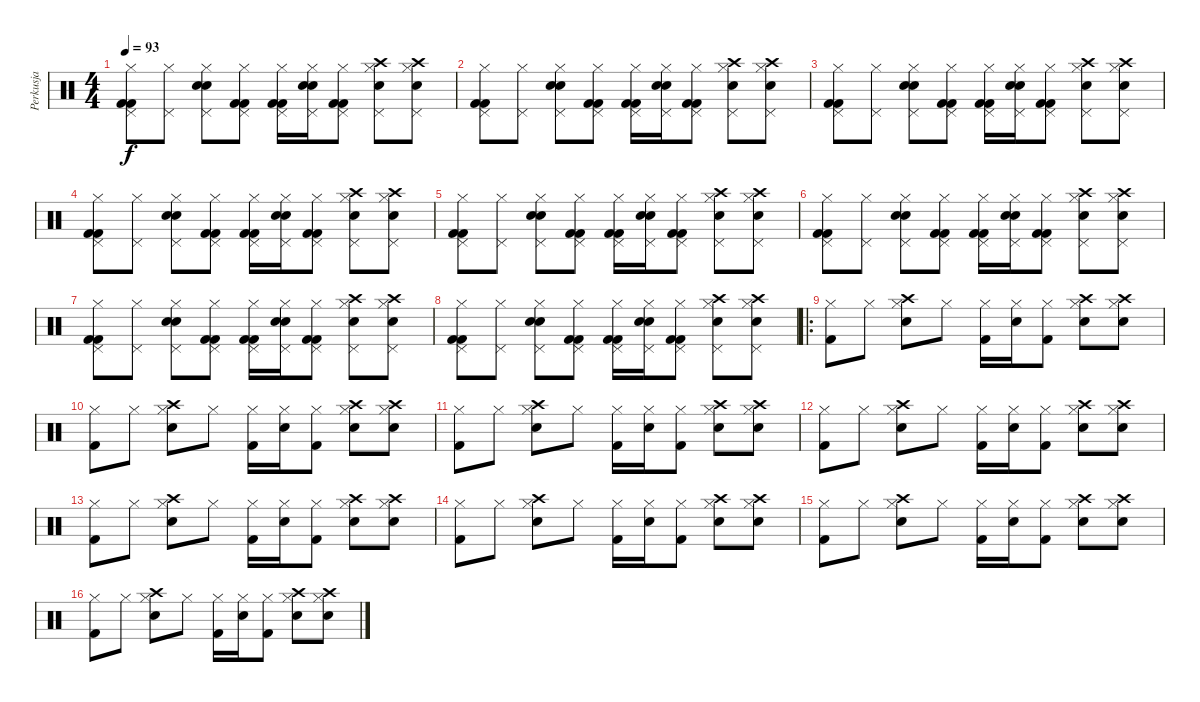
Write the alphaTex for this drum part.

\track ("Perkusja" "Perkusja") {instrument percussion}
\staff {score}
\articulation defaults
\ts (4 4)
\tempo 93
\clef neutral
\ks c
("Kick (hit) 2" "Kick (hit) 2" "Hi-Hat (closed)" "Pedal Hi-Hat (hit)").8{dy f} ("Hi-Hat (closed)" "Pedal Hi-Hat (hit)").8 ("Electric Snare (hit)" "Electric Snare (hit)" "Hi-Hat (closed)" "Pedal Hi-Hat (hit)").8 ("Kick (hit) 2" "Kick (hit) 2" "Hi-Hat (closed)" "Pedal Hi-Hat (hit)").8 ("Kick (hit) 2" "Kick (hit) 2" "Hi-Hat (closed)" "Pedal Hi-Hat (hit)").16 ("Electric Snare (hit)" "Electric Snare (hit)" "Hi-Hat (closed)" "Pedal Hi-Hat (hit)").16 ("Kick (hit) 2" "Kick (hit) 2" "Hi-Hat (closed)" "Pedal Hi-Hat (hit)").8 ("Crash high (hit)" "Electric Snare (hit)" "Hi-Hat (closed)" "Pedal Hi-Hat (hit)").8 ("Crash high (hit)" "Electric Snare (hit)" "Hi-Hat (closed)" "Pedal Hi-Hat (hit)").8 |
("Kick (hit) 2" "Kick (hit) 2" "Hi-Hat (closed)" "Pedal Hi-Hat (hit)").8 ("Hi-Hat (closed)" "Pedal Hi-Hat (hit)").8 ("Electric Snare (hit)" "Electric Snare (hit)" "Hi-Hat (closed)" "Pedal Hi-Hat (hit)").8 ("Kick (hit) 2" "Kick (hit) 2" "Hi-Hat (closed)" "Pedal Hi-Hat (hit)").8 ("Kick (hit) 2" "Kick (hit) 2" "Hi-Hat (closed)" "Pedal Hi-Hat (hit)").16 ("Electric Snare (hit)" "Electric Snare (hit)" "Hi-Hat (closed)" "Pedal Hi-Hat (hit)").16 ("Kick (hit) 2" "Kick (hit) 2" "Hi-Hat (closed)" "Pedal Hi-Hat (hit)").8 ("Crash high (hit)" "Electric Snare (hit)" "Hi-Hat (closed)" "Pedal Hi-Hat (hit)").8 ("Crash high (hit)" "Electric Snare (hit)" "Hi-Hat (closed)" "Pedal Hi-Hat (hit)").8 |
("Kick (hit) 2" "Kick (hit) 2" "Hi-Hat (closed)" "Pedal Hi-Hat (hit)").8 ("Hi-Hat (closed)" "Pedal Hi-Hat (hit)").8 ("Electric Snare (hit)" "Electric Snare (hit)" "Hi-Hat (closed)" "Pedal Hi-Hat (hit)").8 ("Kick (hit) 2" "Kick (hit) 2" "Hi-Hat (closed)" "Pedal Hi-Hat (hit)").8 ("Kick (hit) 2" "Kick (hit) 2" "Hi-Hat (closed)" "Pedal Hi-Hat (hit)").16 ("Electric Snare (hit)" "Electric Snare (hit)" "Hi-Hat (closed)" "Pedal Hi-Hat (hit)").16 ("Kick (hit) 2" "Kick (hit) 2" "Hi-Hat (closed)" "Pedal Hi-Hat (hit)").8 ("Crash high (hit)" "Electric Snare (hit)" "Hi-Hat (closed)" "Pedal Hi-Hat (hit)").8 ("Crash high (hit)" "Electric Snare (hit)" "Hi-Hat (closed)" "Pedal Hi-Hat (hit)").8 |
("Kick (hit) 2" "Kick (hit) 2" "Hi-Hat (closed)" "Pedal Hi-Hat (hit)").8 ("Hi-Hat (closed)" "Pedal Hi-Hat (hit)").8 ("Electric Snare (hit)" "Electric Snare (hit)" "Hi-Hat (closed)" "Pedal Hi-Hat (hit)").8 ("Kick (hit) 2" "Kick (hit) 2" "Hi-Hat (closed)" "Pedal Hi-Hat (hit)").8 ("Kick (hit) 2" "Kick (hit) 2" "Hi-Hat (closed)" "Pedal Hi-Hat (hit)").16 ("Electric Snare (hit)" "Electric Snare (hit)" "Hi-Hat (closed)" "Pedal Hi-Hat (hit)").16 ("Kick (hit) 2" "Kick (hit) 2" "Hi-Hat (closed)" "Pedal Hi-Hat (hit)").8 ("Crash high (hit)" "Electric Snare (hit)" "Hi-Hat (closed)" "Pedal Hi-Hat (hit)").8 ("Crash high (hit)" "Electric Snare (hit)" "Hi-Hat (closed)" "Pedal Hi-Hat (hit)").8 |
("Kick (hit) 2" "Kick (hit) 2" "Hi-Hat (closed)" "Pedal Hi-Hat (hit)").8 ("Hi-Hat (closed)" "Pedal Hi-Hat (hit)").8 ("Electric Snare (hit)" "Electric Snare (hit)" "Hi-Hat (closed)" "Pedal Hi-Hat (hit)").8 ("Kick (hit) 2" "Kick (hit) 2" "Hi-Hat (closed)" "Pedal Hi-Hat (hit)").8 ("Kick (hit) 2" "Kick (hit) 2" "Hi-Hat (closed)" "Pedal Hi-Hat (hit)").16 ("Electric Snare (hit)" "Electric Snare (hit)" "Hi-Hat (closed)" "Pedal Hi-Hat (hit)").16 ("Kick (hit) 2" "Kick (hit) 2" "Hi-Hat (closed)" "Pedal Hi-Hat (hit)").8 ("Crash high (hit)" "Electric Snare (hit)" "Hi-Hat (closed)" "Pedal Hi-Hat (hit)").8 ("Crash high (hit)" "Electric Snare (hit)" "Hi-Hat (closed)" "Pedal Hi-Hat (hit)").8 |
("Kick (hit) 2" "Kick (hit) 2" "Hi-Hat (closed)" "Pedal Hi-Hat (hit)").8 ("Hi-Hat (closed)" "Pedal Hi-Hat (hit)").8 ("Electric Snare (hit)" "Electric Snare (hit)" "Hi-Hat (closed)" "Pedal Hi-Hat (hit)").8 ("Kick (hit) 2" "Kick (hit) 2" "Hi-Hat (closed)" "Pedal Hi-Hat (hit)").8 ("Kick (hit) 2" "Kick (hit) 2" "Hi-Hat (closed)" "Pedal Hi-Hat (hit)").16 ("Electric Snare (hit)" "Electric Snare (hit)" "Hi-Hat (closed)" "Pedal Hi-Hat (hit)").16 ("Kick (hit) 2" "Kick (hit) 2" "Hi-Hat (closed)" "Pedal Hi-Hat (hit)").8 ("Crash high (hit)" "Electric Snare (hit)" "Hi-Hat (closed)" "Pedal Hi-Hat (hit)").8 ("Crash high (hit)" "Electric Snare (hit)" "Hi-Hat (closed)" "Pedal Hi-Hat (hit)").8 |
("Kick (hit) 2" "Kick (hit) 2" "Hi-Hat (closed)" "Pedal Hi-Hat (hit)").8 ("Hi-Hat (closed)" "Pedal Hi-Hat (hit)").8 ("Electric Snare (hit)" "Electric Snare (hit)" "Hi-Hat (closed)" "Pedal Hi-Hat (hit)").8 ("Kick (hit) 2" "Kick (hit) 2" "Hi-Hat (closed)" "Pedal Hi-Hat (hit)").8 ("Kick (hit) 2" "Kick (hit) 2" "Hi-Hat (closed)" "Pedal Hi-Hat (hit)").16 ("Electric Snare (hit)" "Electric Snare (hit)" "Hi-Hat (closed)" "Pedal Hi-Hat (hit)").16 ("Kick (hit) 2" "Kick (hit) 2" "Hi-Hat (closed)" "Pedal Hi-Hat (hit)").8 ("Crash high (hit)" "Electric Snare (hit)" "Hi-Hat (closed)" "Pedal Hi-Hat (hit)").8 ("Crash high (hit)" "Electric Snare (hit)" "Hi-Hat (closed)" "Pedal Hi-Hat (hit)").8 |
("Kick (hit) 2" "Kick (hit) 2" "Hi-Hat (closed)" "Pedal Hi-Hat (hit)").8 ("Hi-Hat (closed)" "Pedal Hi-Hat (hit)").8 ("Electric Snare (hit)" "Electric Snare (hit)" "Hi-Hat (closed)" "Pedal Hi-Hat (hit)").8 ("Kick (hit) 2" "Kick (hit) 2" "Hi-Hat (closed)" "Pedal Hi-Hat (hit)").8 ("Kick (hit) 2" "Kick (hit) 2" "Hi-Hat (closed)" "Pedal Hi-Hat (hit)").16 ("Electric Snare (hit)" "Electric Snare (hit)" "Hi-Hat (closed)" "Pedal Hi-Hat (hit)").16 ("Kick (hit) 2" "Kick (hit) 2" "Hi-Hat (closed)" "Pedal Hi-Hat (hit)").8 ("Crash high (hit)" "Electric Snare (hit)" "Hi-Hat (closed)" "Pedal Hi-Hat (hit)").8 ("Crash high (hit)" "Electric Snare (hit)" "Hi-Hat (closed)" "Pedal Hi-Hat (hit)").8 |
\ro
("Hi-Hat (closed)" "Kick (hit) 2").8 "Hi-Hat (closed)".8 ("Hi-Hat (closed)" "Electric Snare (hit)" "Crash high (hit)").8 "Hi-Hat (closed)".8 ("Hi-Hat (closed)" "Kick (hit) 2").16 ("Hi-Hat (closed)" "Electric Snare (hit)").16 ("Hi-Hat (closed)" "Kick (hit) 2").8 ("Hi-Hat (closed)" "Electric Snare (hit)" "Crash high (hit)").8 ("Hi-Hat (closed)" "Electric Snare (hit)" "Crash high (hit)").8 |
("Hi-Hat (closed)" "Kick (hit) 2").8 "Hi-Hat (closed)".8 ("Hi-Hat (closed)" "Electric Snare (hit)" "Crash high (hit)").8 "Hi-Hat (closed)".8 ("Hi-Hat (closed)" "Kick (hit) 2").16 ("Hi-Hat (closed)" "Electric Snare (hit)").16 ("Hi-Hat (closed)" "Kick (hit) 2").8 ("Hi-Hat (closed)" "Electric Snare (hit)" "Crash high (hit)").8 ("Hi-Hat (closed)" "Electric Snare (hit)" "Crash high (hit)").8 |
("Hi-Hat (closed)" "Kick (hit) 2").8 "Hi-Hat (closed)".8 ("Hi-Hat (closed)" "Electric Snare (hit)" "Crash high (hit)").8 "Hi-Hat (closed)".8 ("Hi-Hat (closed)" "Kick (hit) 2").16 ("Hi-Hat (closed)" "Electric Snare (hit)").16 ("Hi-Hat (closed)" "Kick (hit) 2").8 ("Hi-Hat (closed)" "Electric Snare (hit)" "Crash high (hit)").8 ("Hi-Hat (closed)" "Electric Snare (hit)" "Crash high (hit)").8 |
("Hi-Hat (closed)" "Kick (hit) 2").8 "Hi-Hat (closed)".8 ("Hi-Hat (closed)" "Electric Snare (hit)" "Crash high (hit)").8 "Hi-Hat (closed)".8 ("Hi-Hat (closed)" "Kick (hit) 2").16 ("Hi-Hat (closed)" "Electric Snare (hit)").16 ("Hi-Hat (closed)" "Kick (hit) 2").8 ("Hi-Hat (closed)" "Electric Snare (hit)" "Crash high (hit)").8 ("Hi-Hat (closed)" "Electric Snare (hit)" "Crash high (hit)").8 |
("Hi-Hat (closed)" "Kick (hit) 2").8 "Hi-Hat (closed)".8 ("Hi-Hat (closed)" "Electric Snare (hit)" "Crash high (hit)").8 "Hi-Hat (closed)".8 ("Hi-Hat (closed)" "Kick (hit) 2").16 ("Hi-Hat (closed)" "Electric Snare (hit)").16 ("Hi-Hat (closed)" "Kick (hit) 2").8 ("Hi-Hat (closed)" "Electric Snare (hit)" "Crash high (hit)").8 ("Hi-Hat (closed)" "Electric Snare (hit)" "Crash high (hit)").8 |
("Hi-Hat (closed)" "Kick (hit) 2").8 "Hi-Hat (closed)".8 ("Hi-Hat (closed)" "Electric Snare (hit)" "Crash high (hit)").8 "Hi-Hat (closed)".8 ("Hi-Hat (closed)" "Kick (hit) 2").16 ("Hi-Hat (closed)" "Electric Snare (hit)").16 ("Hi-Hat (closed)" "Kick (hit) 2").8 ("Hi-Hat (closed)" "Electric Snare (hit)" "Crash high (hit)").8 ("Hi-Hat (closed)" "Electric Snare (hit)" "Crash high (hit)").8 |
("Hi-Hat (closed)" "Kick (hit) 2").8 "Hi-Hat (closed)".8 ("Hi-Hat (closed)" "Electric Snare (hit)" "Crash high (hit)").8 "Hi-Hat (closed)".8 ("Hi-Hat (closed)" "Kick (hit) 2").16 ("Hi-Hat (closed)" "Electric Snare (hit)").16 ("Hi-Hat (closed)" "Kick (hit) 2").8 ("Hi-Hat (closed)" "Electric Snare (hit)" "Crash high (hit)").8 ("Hi-Hat (closed)" "Electric Snare (hit)" "Crash high (hit)").8 |
("Hi-Hat (closed)" "Kick (hit) 2").8 "Hi-Hat (closed)".8 ("Hi-Hat (closed)" "Electric Snare (hit)" "Crash high (hit)").8 "Hi-Hat (closed)".8 ("Hi-Hat (closed)" "Kick (hit) 2").16 ("Hi-Hat (closed)" "Electric Snare (hit)").16 ("Hi-Hat (closed)" "Kick (hit) 2").8 ("Hi-Hat (closed)" "Electric Snare (hit)" "Crash high (hit)").8 ("Hi-Hat (closed)" "Electric Snare (hit)" "Crash high (hit)").8
